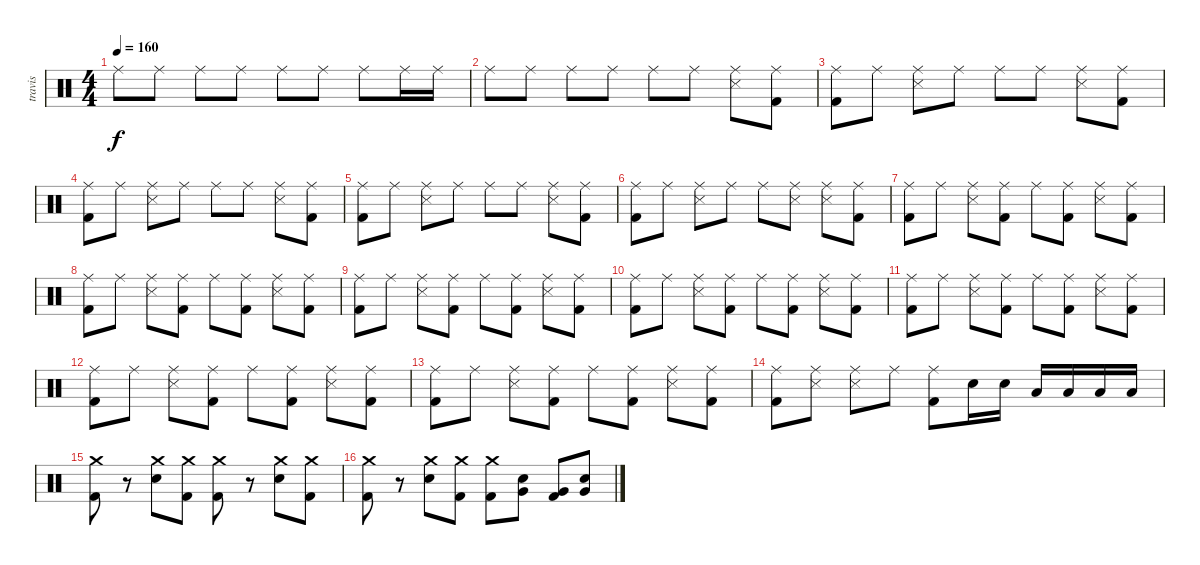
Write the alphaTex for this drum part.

\track ("travis" "travis") {instrument percussion}
\staff {score}
\articulation defaults
\ts (4 4)
\tempo 160
\clef neutral
\ks c "Ride (middle)".8{dy f} "Ride (middle)".8 "Ride (middle)".8 "Ride (middle)".8 "Ride (middle)".8 "Ride (middle)".8 "Ride (middle)".8 "Ride (middle)".16 "Ride (middle)".16
|
"Ride (middle)".8 "Ride (middle)".8 "Ride (middle)".8 "Ride (middle)".8 "Ride (middle)".8 "Ride (middle)".8 ("Ride (middle)" "Snare (side stick) 3").8 ("Ride (middle)" "Kick (hit) 2").8 |
("Ride (middle)" "Kick (hit) 2").8 "Ride (middle)".8 ("Ride (middle)" "Snare (side stick) 3").8 "Ride (middle)".8 "Ride (middle)".8 "Ride (middle)".8 ("Ride (middle)" "Snare (side stick) 3").8 ("Ride (middle)" "Kick (hit) 2").8 |
("Ride (middle)" "Kick (hit) 2").8 "Ride (middle)".8 ("Ride (middle)" "Snare (side stick) 3").8 "Ride (middle)".8 "Ride (middle)".8 "Ride (middle)".8 ("Ride (middle)" "Snare (side stick) 3").8 ("Ride (middle)" "Kick (hit) 2").8 |
("Ride (middle)" "Kick (hit) 2").8 "Ride (middle)".8 ("Ride (middle)" "Snare (side stick) 3").8 "Ride (middle)".8 "Ride (middle)".8 "Ride (middle)".8 ("Ride (middle)" "Snare (side stick) 3").8 ("Ride (middle)" "Kick (hit) 2").8 |
("Ride (middle)" "Kick (hit) 2").8 "Ride (middle)".8 ("Ride (middle)" "Snare (side stick) 3").8 "Ride (middle)".8 "Ride (middle)".8 ("Ride (middle)" "Snare (side stick) 3").8 ("Ride (middle)" "Snare (side stick) 3").8 ("Ride (middle)" "Kick (hit) 2").8 |
("Ride (middle)" "Kick (hit) 2").8 "Ride (middle)".8 ("Ride (middle)" "Snare (side stick) 3").8 ("Ride (middle)" "Kick (hit) 2").8 "Ride (middle)".8 ("Ride (middle)" "Kick (hit) 2").8 ("Ride (middle)" "Snare (side stick) 3").8 ("Ride (middle)" "Kick (hit) 2").8 |
("Ride (middle)" "Kick (hit) 2").8 "Ride (middle)".8 ("Ride (middle)" "Snare (side stick) 3").8 ("Ride (middle)" "Kick (hit) 2").8 "Ride (middle)".8 ("Ride (middle)" "Kick (hit) 2").8 ("Ride (middle)" "Snare (side stick) 3").8 ("Ride (middle)" "Kick (hit) 2").8 |
("Ride (middle)" "Kick (hit) 2").8 "Ride (middle)".8 ("Ride (middle)" "Snare (side stick) 3").8 ("Ride (middle)" "Kick (hit) 2").8 "Ride (middle)".8 ("Ride (middle)" "Kick (hit) 2").8 ("Ride (middle)" "Snare (side stick) 3").8 ("Ride (middle)" "Kick (hit) 2").8 |
("Ride (middle)" "Kick (hit) 2").8 "Ride (middle)".8 ("Ride (middle)" "Snare (side stick) 3").8 ("Ride (middle)" "Kick (hit) 2").8 "Ride (middle)".8 ("Ride (middle)" "Kick (hit) 2").8 ("Ride (middle)" "Snare (side stick) 3").8 ("Ride (middle)" "Kick (hit) 2").8 |
("Ride (middle)" "Kick (hit) 2").8 "Ride (middle)".8 ("Ride (middle)" "Snare (side stick) 3").8 ("Ride (middle)" "Kick (hit) 2").8 "Ride (middle)".8 ("Ride (middle)" "Kick (hit) 2").8 ("Ride (middle)" "Snare (side stick) 3").8 ("Ride (middle)" "Kick (hit) 2").8 |
("Ride (middle)" "Kick (hit) 2").8 "Ride (middle)".8 ("Ride (middle)" "Snare (side stick) 3").8 ("Ride (middle)" "Kick (hit) 2").8 "Ride (middle)".8 ("Ride (middle)" "Kick (hit) 2").8 ("Ride (middle)" "Snare (side stick) 3").8 ("Ride (middle)" "Kick (hit) 2").8 |
("Ride (middle)" "Kick (hit) 2").8 "Ride (middle)".8 ("Ride (middle)" "Snare (side stick) 3").8 ("Ride (middle)" "Kick (hit) 2").8 "Ride (middle)".8 ("Ride (middle)" "Kick (hit) 2").8 ("Ride (middle)" "Snare (side stick) 3").8 ("Ride (middle)" "Kick (hit) 2").8 |
("Ride (middle)" "Kick (hit) 2").8 ("Ride (middle)" "Snare (side stick) 3").8 ("Ride (middle)" "Snare (side stick) 3").8 "Ride (middle)".8 ("Ride (middle)" "Kick (hit) 2").8 "Snare (hit) 2".16 "Snare (hit) 2".16 "Low Tom (hit)".16 "Low Tom (hit)".16 "Low Floor Tom (hit)".16 "Low Floor Tom (hit)".16 |
("Kick (hit) 2" "Crash medium (hit)").8 r.8 ("Snare (hit) 2" "Crash medium (hit)").8 ("Kick (hit) 2" "Crash medium (hit)").8 ("Kick (hit) 2" "Crash medium (hit)").8 r.8 ("Snare (hit) 2" "Crash medium (hit)").8 ("Kick (hit) 2" "Crash medium (hit)").8 |
("Kick (hit) 2" "Crash medium (hit)").8 r.8 ("Snare (hit) 2" "Crash medium (hit)").8 ("Kick (hit) 2" "Crash medium (hit)").8 ("Kick (hit) 2" "Crash medium (hit)").8 ("Snare (hit) 2" "Very Low Tom (hit)").8 ("Kick (hit) 2" "Very Low Tom (hit)").8 ("Snare (hit) 2" "Very Low Tom (hit)").8
